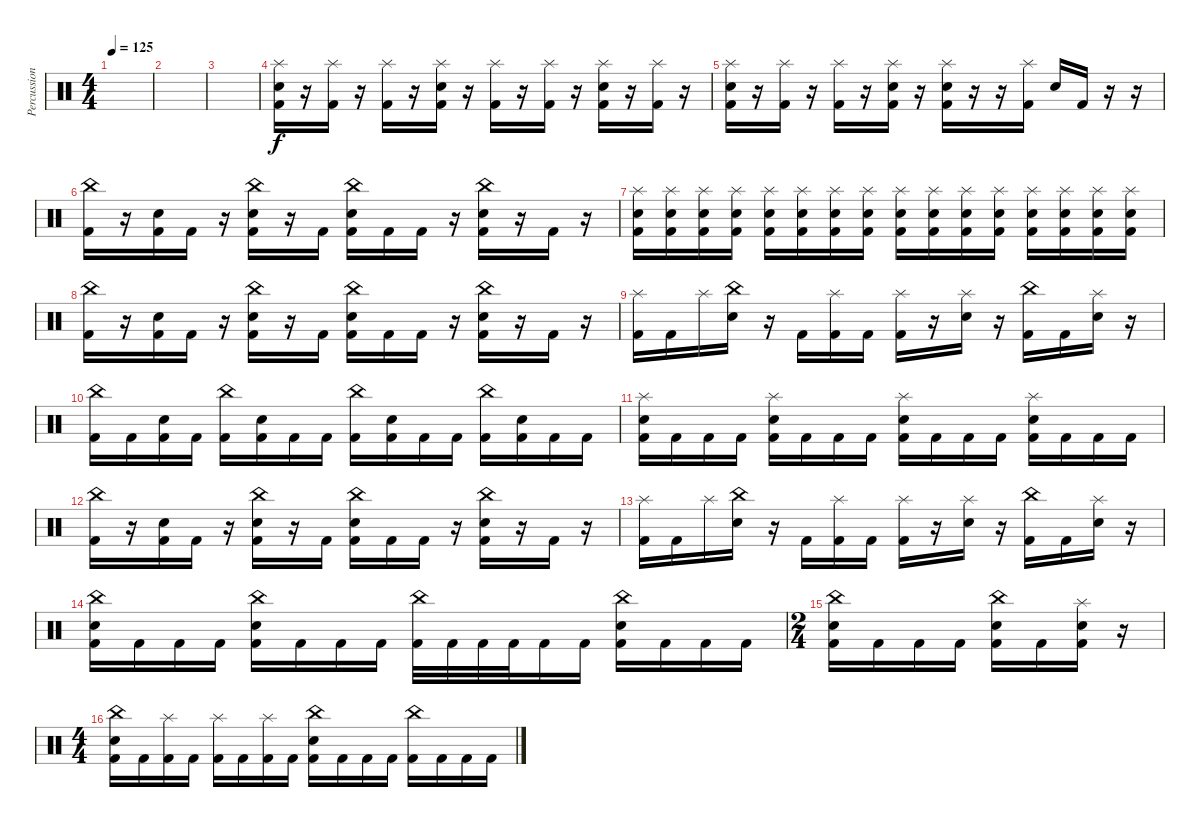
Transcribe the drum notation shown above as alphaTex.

\track ("Percussion" "Percussion") {instrument percussion}
\staff {score}
\articulation defaults
\ts (4 4)
\tempo 125
\clef neutral
\ks c
|
|
|
("Splash (hit)" "Electric Snare (hit)" "Kick (hit) 2").16 r.16 ("Splash (hit)" "Kick (hit) 2").16 r.16 ("Splash (hit)" "Kick (hit) 2").16 r.16 ("Splash (hit)" "Electric Snare (hit)" "Kick (hit) 2").16 r.16 ("Splash (hit)" "Kick (hit) 2").16 r.16 ("Splash (hit)" "Kick (hit) 2").16 r.16 ("Splash (hit)" "Electric Snare (hit)" "Kick (hit) 2").16 r.16 ("Splash (hit)" "Kick (hit) 2").16 r.16 |
("Splash (hit)" "Electric Snare (hit)" "Kick (hit) 2").16 r.16 ("Splash (hit)" "Kick (hit) 2").16 r.16 ("Splash (hit)" "Kick (hit) 2").16 r.16 ("Splash (hit)" "Electric Snare (hit)" "Kick (hit) 2").16 r.16 ("Splash (hit)" "Electric Snare (hit)" "Kick (hit) 2").16 r.16 r.16 ("Splash (hit)" "Kick (hit) 2").16 "Electric Snare (hit)".16 "Kick (hit) 2".16 r.16 r.16 |
("China (hit)" "Kick (hit) 2").16 r.16 ("Electric Snare (hit)" "Kick (hit) 2").16 "Kick (hit) 2".16 r.16 ("China (hit)" "Electric Snare (hit)" "Kick (hit) 2").16 r.16 "Kick (hit) 2".16 ("China (hit)" "Electric Snare (hit)" "Kick (hit) 2").16 "Kick (hit) 2".16 "Kick (hit) 2".16 r.16 ("China (hit)" "Electric Snare (hit)" "Kick (hit) 2").16 r.16 "Kick (hit) 2".16 r.16 |
("Splash (hit)" "Electric Snare (hit)" "Kick (hit) 2").16 ("Splash (hit)" "Electric Snare (hit)" "Kick (hit) 2").16 ("Splash (hit)" "Electric Snare (hit)" "Kick (hit) 2").16 ("Splash (hit)" "Electric Snare (hit)" "Kick (hit) 2").16 ("Splash (hit)" "Electric Snare (hit)" "Kick (hit) 2").16 ("Splash (hit)" "Electric Snare (hit)" "Kick (hit) 2").16 ("Splash (hit)" "Electric Snare (hit)" "Kick (hit) 2").16 ("Splash (hit)" "Electric Snare (hit)" "Kick (hit) 2").16 ("Splash (hit)" "Electric Snare (hit)" "Kick (hit) 2").16 ("Splash (hit)" "Electric Snare (hit)" "Kick (hit) 2").16 ("Splash (hit)" "Electric Snare (hit)" "Kick (hit) 2").16 ("Splash (hit)" "Electric Snare (hit)" "Kick (hit) 2").16 ("Splash (hit)" "Electric Snare (hit)" "Kick (hit) 2").16 ("Splash (hit)" "Electric Snare (hit)" "Kick (hit) 2").16 ("Splash (hit)" "Electric Snare (hit)" "Kick (hit) 2").16 ("Splash (hit)" "Electric Snare (hit)" "Kick (hit) 2").16 |
("China (hit)" "Kick (hit) 2").16 r.16 ("Electric Snare (hit)" "Kick (hit) 2").16 "Kick (hit) 2".16 r.16 ("China (hit)" "Electric Snare (hit)" "Kick (hit) 2").16 r.16 "Kick (hit) 2".16 ("China (hit)" "Electric Snare (hit)" "Kick (hit) 2").16 "Kick (hit) 2".16 "Kick (hit) 2".16 r.16 ("China (hit)" "Electric Snare (hit)" "Kick (hit) 2").16 r.16 "Kick (hit) 2".16 r.16 |
("Splash (hit)" "Kick (hit) 2").16 "Kick (hit) 2".16 "Splash (hit)".16 ("China (hit)" "Electric Snare (hit)").16 r.16 "Kick (hit) 2".16 ("Splash (hit)" "Kick (hit) 2").16 "Kick (hit) 2".16 ("Splash (hit)" "Kick (hit) 2").16 r.16 ("Splash (hit)" "Electric Snare (hit)").16 r.16 ("China (hit)" "Kick (hit) 2").16 "Kick (hit) 2".16 ("Splash (hit)" "Electric Snare (hit)").16 r.16 |
("China (hit)" "Kick (hit) 2").16 "Kick (hit) 2".16 ("Electric Snare (hit)" "Kick (hit) 2").16 "Kick (hit) 2".16 ("China (hit)" "Kick (hit) 2").16 ("Electric Snare (hit)" "Kick (hit) 2").16 "Kick (hit) 2".16 "Kick (hit) 2".16 ("China (hit)" "Kick (hit) 2").16 ("Electric Snare (hit)" "Kick (hit) 2").16 "Kick (hit) 2".16 "Kick (hit) 2".16 ("China (hit)" "Kick (hit) 2").16 ("Electric Snare (hit)" "Kick (hit) 2").16 "Kick (hit) 2".16 "Kick (hit) 2".16 |
("Splash (hit)" "Electric Snare (hit)" "Kick (hit) 2").16 "Kick (hit) 2".16 "Kick (hit) 2".16 "Kick (hit) 2".16 ("Splash (hit)" "Electric Snare (hit)" "Kick (hit) 2").16 "Kick (hit) 2".16 "Kick (hit) 2".16 "Kick (hit) 2".16 ("Splash (hit)" "Electric Snare (hit)" "Kick (hit) 2").16 "Kick (hit) 2".16 "Kick (hit) 2".16 "Kick (hit) 2".16 ("Splash (hit)" "Electric Snare (hit)" "Kick (hit) 2").16 "Kick (hit) 2".16 "Kick (hit) 2".16 "Kick (hit) 2".16 |
("China (hit)" "Kick (hit) 2").16 r.16 ("Electric Snare (hit)" "Kick (hit) 2").16 "Kick (hit) 2".16 r.16 ("China (hit)" "Electric Snare (hit)" "Kick (hit) 2").16 r.16 "Kick (hit) 2".16 ("China (hit)" "Electric Snare (hit)" "Kick (hit) 2").16 "Kick (hit) 2".16 "Kick (hit) 2".16 r.16 ("China (hit)" "Electric Snare (hit)" "Kick (hit) 2").16 r.16 "Kick (hit) 2".16 r.16 |
("Splash (hit)" "Kick (hit) 2").16 "Kick (hit) 2".16 "Splash (hit)".16 ("China (hit)" "Electric Snare (hit)").16 r.16 "Kick (hit) 2".16 ("Splash (hit)" "Kick (hit) 2").16 "Kick (hit) 2".16 ("Splash (hit)" "Kick (hit) 2").16 r.16 ("Splash (hit)" "Electric Snare (hit)").16 r.16 ("China (hit)" "Kick (hit) 2").16 "Kick (hit) 2".16 ("Splash (hit)" "Electric Snare (hit)").16 r.16 |
("China (hit)" "Electric Snare (hit)" "Kick (hit) 2").16 "Kick (hit) 2".16 "Kick (hit) 2".16 "Kick (hit) 2".16 ("China (hit)" "Electric Snare (hit)" "Kick (hit) 2").16 "Kick (hit) 2".16 "Kick (hit) 2".16 "Kick (hit) 2".16 ("China (hit)" "Kick (hit) 2").32 "Kick (hit) 2".32 "Kick (hit) 2".32 "Kick (hit) 2".32 "Kick (hit) 2".16 "Kick (hit) 2".16 ("China (hit)" "Electric Snare (hit)" "Kick (hit) 2").16 "Kick (hit) 2".16 "Kick (hit) 2".16 "Kick (hit) 2".16 |
\ts (2 4)
("China (hit)" "Electric Snare (hit)" "Kick (hit) 2").16 "Kick (hit) 2".16 "Kick (hit) 2".16 "Kick (hit) 2".16 ("China (hit)" "Electric Snare (hit)" "Kick (hit) 2").16 "Kick (hit) 2".16 ("Splash (hit)" "Electric Snare (hit)" "Kick (hit) 2").16 r.16 |
\ts (4 4)
("China (hit)" "Electric Snare (hit)" "Kick (hit) 2").16 "Kick (hit) 2".16 ("Splash (hit)" "Kick (hit) 2").16 "Kick (hit) 2".16 ("Splash (hit)" "Kick (hit) 2").16 "Kick (hit) 2".16 ("Splash (hit)" "Kick (hit) 2").16 "Kick (hit) 2".16 ("China (hit)" "Electric Snare (hit)" "Kick (hit) 2").16 "Kick (hit) 2".16 "Kick (hit) 2".16 "Kick (hit) 2".16 ("China (hit)" "Kick (hit) 2").16 "Kick (hit) 2".16 "Kick (hit) 2".16 "Kick (hit) 2".16
